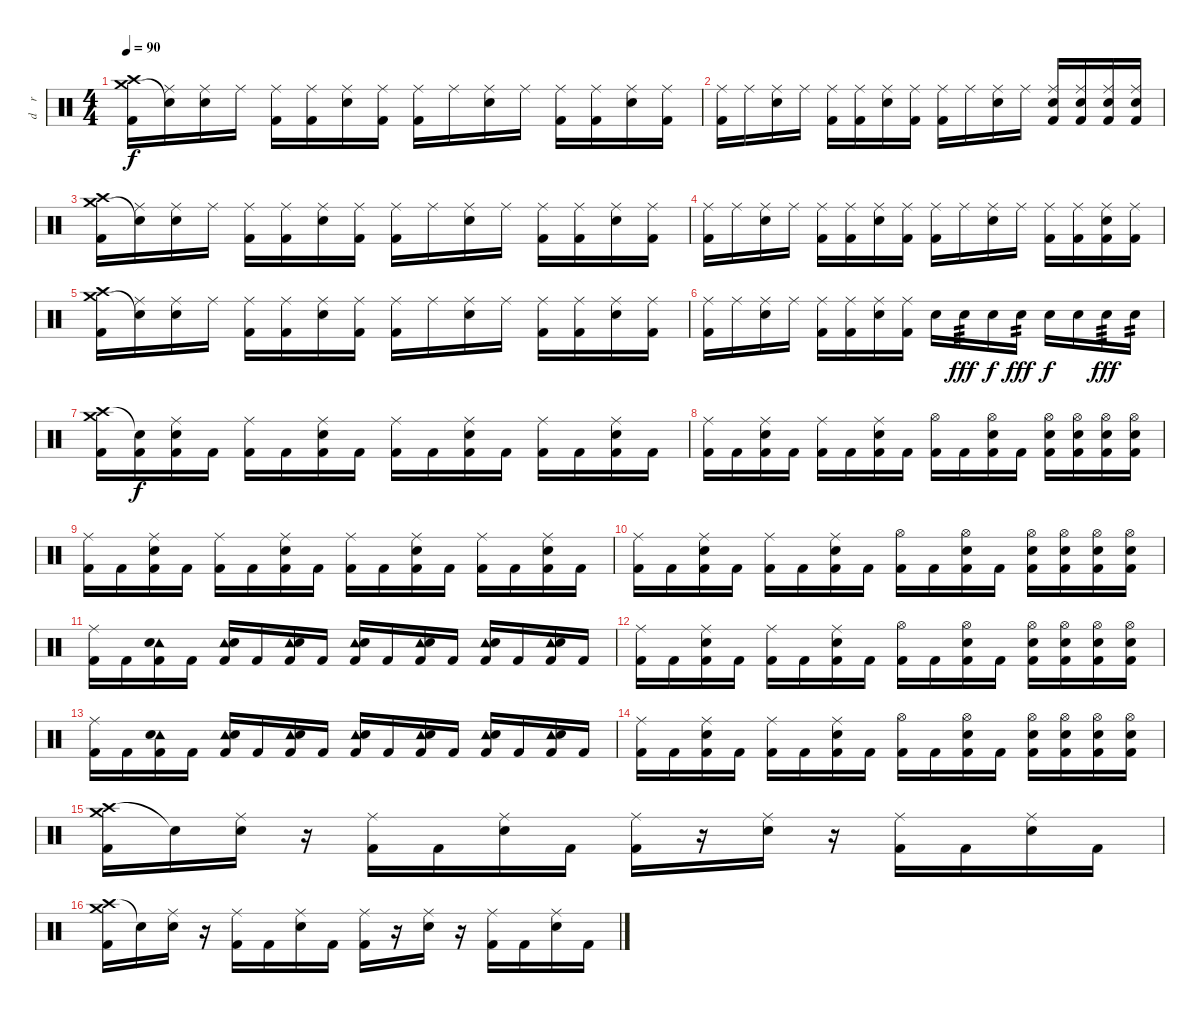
\track ("d    r     u    m    s" "d    r    ") {instrument percussion}
\staff {score}
\articulation defaults
\ts (4 4)
\tempo 90
\clef neutral
\ks c
("Crash high (hit)" "Crash medium (hit)" "Kick (hit) 2").16{dy f} ("Ride (middle)" "Snare (hit)"{t}).16 ("Ride (middle)" "Electric Snare (hit)").16 "Ride (middle)".16 ("Ride (middle)" "Kick (hit) 2").16 ("Ride (middle)" "Kick (hit) 2").16 ("Ride (middle)" "Electric Snare (hit)").16 ("Ride (middle)" "Kick (hit) 2").16 ("Ride (middle)" "Kick (hit) 2").16 "Ride (middle)".16 ("Ride (middle)" "Electric Snare (hit)").16 "Ride (middle)".16 ("Ride (middle)" "Kick (hit) 2").16 ("Ride (middle)" "Kick (hit) 2").16 ("Ride (middle)" "Electric Snare (hit)").16 ("Ride (middle)" "Kick (hit) 2").16 |
("Ride (middle)" "Kick (hit) 2").16 "Ride (middle)".16 ("Ride (middle)" "Electric Snare (hit)").16 "Ride (middle)".16 ("Ride (middle)" "Kick (hit) 2").16 ("Ride (middle)" "Kick (hit) 2").16 ("Ride (middle)" "Electric Snare (hit)").16 ("Ride (middle)" "Kick (hit) 2").16 ("Ride (middle)" "Kick (hit) 2").16 "Ride (middle)".16 ("Ride (middle)" "Electric Snare (hit)").16 "Ride (middle)".16 ("Ride (middle)" "Electric Snare (hit)" "Kick (hit) 2").16 ("Ride (middle)" "Electric Snare (hit)" "Kick (hit) 2").16 ("Ride (middle)" "Electric Snare (hit)" "Kick (hit) 2").16 ("Ride (middle)" "Electric Snare (hit)" "Kick (hit) 2").16 |
("Crash high (hit)" "Crash medium (hit)" "Kick (hit) 2").16 ("Ride (middle)" "Snare (hit)"{t}).16 ("Ride (middle)" "Electric Snare (hit)").16 "Ride (middle)".16 ("Ride (middle)" "Kick (hit) 2").16 ("Ride (middle)" "Kick (hit) 2").16 ("Ride (middle)" "Electric Snare (hit)").16 ("Ride (middle)" "Kick (hit) 2").16 ("Ride (middle)" "Kick (hit) 2").16 "Ride (middle)".16 ("Ride (middle)" "Electric Snare (hit)").16 "Ride (middle)".16 ("Ride (middle)" "Kick (hit) 2").16 ("Ride (middle)" "Kick (hit) 2").16 ("Ride (middle)" "Electric Snare (hit)").16 ("Ride (middle)" "Kick (hit) 2").16 |
("Ride (middle)" "Kick (hit) 2").16 "Ride (middle)".16 ("Ride (middle)" "Electric Snare (hit)").16 "Ride (middle)".16 ("Ride (middle)" "Kick (hit) 2").16 ("Ride (middle)" "Kick (hit) 2").16 ("Ride (middle)" "Electric Snare (hit)").16 ("Ride (middle)" "Kick (hit) 2").16 ("Ride (middle)" "Kick (hit) 2").16 "Ride (middle)".16 ("Ride (middle)" "Electric Snare (hit)").16 "Ride (middle)".16 ("Ride (middle)" "Kick (hit) 2").16 ("Ride (middle)" "Kick (hit) 2").16 ("Ride (middle)" "Electric Snare (hit)" "Kick (hit) 2").16 ("Ride (middle)" "Kick (hit) 2").16 |
("Crash high (hit)" "Crash medium (hit)" "Kick (hit) 2").16 ("Ride (middle)" "Snare (hit)"{t}).16 ("Ride (middle)" "Electric Snare (hit)").16 "Ride (middle)".16 ("Ride (middle)" "Kick (hit) 2").16 ("Ride (middle)" "Kick (hit) 2").16 ("Ride (middle)" "Electric Snare (hit)").16 ("Ride (middle)" "Kick (hit) 2").16 ("Ride (middle)" "Kick (hit) 2").16 "Ride (middle)".16 ("Ride (middle)" "Electric Snare (hit)").16 "Ride (middle)".16 ("Ride (middle)" "Kick (hit) 2").16 ("Ride (middle)" "Kick (hit) 2").16 ("Ride (middle)" "Electric Snare (hit)").16 ("Ride (middle)" "Kick (hit) 2").16 |
("Ride (middle)" "Kick (hit) 2").16 "Ride (middle)".16 ("Ride (middle)" "Electric Snare (hit)").16 "Ride (middle)".16 ("Ride (middle)" "Kick (hit) 2").16 ("Ride (middle)" "Kick (hit) 2").16 ("Ride (middle)" "Electric Snare (hit)").16 ("Ride (middle)" "Kick (hit) 2").16 "Electric Snare (hit)".16 "Electric Snare (hit)".16{tp 3 dy fff} "Electric Snare (hit)".16{dy f} "Electric Snare (hit)".16{tp 2 dy fff} "Electric Snare (hit)".16{dy f} "Electric Snare (hit)".16 "Electric Snare (hit)".16{tp 3 dy fff} "Electric Snare (hit)".16{tp 2} |
("Crash high (hit)" "Crash medium (hit)" "Kick (hit) 2").16 ("Snare (hit)"{t} "Kick (hit) 2").16{dy f} ("Ride (middle)" "Electric Snare (hit)" "Kick (hit) 2").16 "Kick (hit) 2".16 ("Ride (middle)" "Kick (hit) 2").16 "Kick (hit) 2".16 ("Ride (middle)" "Electric Snare (hit)" "Kick (hit) 2").16 "Kick (hit) 2".16 ("Ride (middle)" "Kick (hit) 2").16 "Kick (hit) 2".16 ("Ride (middle)" "Electric Snare (hit)" "Kick (hit) 2").16 "Kick (hit) 2".16 ("Ride (middle)" "Kick (hit) 2").16 "Kick (hit) 2".16 ("Ride (middle)" "Electric Snare (hit)" "Kick (hit) 2").16 "Kick (hit) 2".16 |
("Ride (middle)" "Kick (hit) 2").16 "Kick (hit) 2".16 ("Ride (middle)" "Electric Snare (hit)" "Kick (hit) 2").16 "Kick (hit) 2".16 ("Ride (middle)" "Kick (hit) 2").16 "Kick (hit) 2".16 ("Ride (middle)" "Electric Snare (hit)" "Kick (hit) 2").16 "Kick (hit) 2".16 ("Hi-Hat (open)" "Kick (hit) 2").16 "Kick (hit) 2".16 ("Hi-Hat (open)" "Electric Snare (hit)" "Kick (hit) 2").16 "Kick (hit) 2".16 ("Hi-Hat (open)" "Electric Snare (hit)" "Kick (hit) 2").16 ("Hi-Hat (open)" "Electric Snare (hit)" "Kick (hit) 2").16 ("Hi-Hat (open)" "Electric Snare (hit)" "Kick (hit) 2").16 ("Hi-Hat (open)" "Electric Snare (hit)" "Kick (hit) 2").16 |
("Ride (middle)" "Kick (hit) 2").16 "Kick (hit) 2".16 ("Ride (middle)" "Electric Snare (hit)" "Kick (hit) 2").16 "Kick (hit) 2".16 ("Ride (middle)" "Kick (hit) 2").16 "Kick (hit) 2".16 ("Ride (middle)" "Electric Snare (hit)" "Kick (hit) 2").16 "Kick (hit) 2".16 ("Ride (middle)" "Kick (hit) 2").16 "Kick (hit) 2".16 ("Ride (middle)" "Electric Snare (hit)" "Kick (hit) 2").16 "Kick (hit) 2".16 ("Ride (middle)" "Kick (hit) 2").16 "Kick (hit) 2".16 ("Ride (middle)" "Electric Snare (hit)" "Kick (hit) 2").16 "Kick (hit) 2".16 |
("Ride (middle)" "Kick (hit) 2").16 "Kick (hit) 2".16 ("Ride (middle)" "Electric Snare (hit)" "Kick (hit) 2").16 "Kick (hit) 2".16 ("Ride (middle)" "Kick (hit) 2").16 "Kick (hit) 2".16 ("Ride (middle)" "Electric Snare (hit)" "Kick (hit) 2").16 "Kick (hit) 2".16 ("Hi-Hat (open)" "Kick (hit) 2").16 "Kick (hit) 2".16 ("Hi-Hat (open)" "Electric Snare (hit)" "Kick (hit) 2").16 "Kick (hit) 2".16 ("Hi-Hat (open)" "Electric Snare (hit)" "Kick (hit) 2").16 ("Hi-Hat (open)" "Electric Snare (hit)" "Kick (hit) 2").16 ("Hi-Hat (open)" "Electric Snare (hit)" "Kick (hit) 2").16 ("Hi-Hat (open)" "Electric Snare (hit)" "Kick (hit) 2").16 |
("Ride (middle)" "Kick (hit) 2").16 "Kick (hit) 2".16 ("Tambourine (hit)" "Electric Snare (hit)" "Kick (hit) 2").16 "Kick (hit) 2".16 ("Tambourine (hit)" "Electric Snare (hit)" "Kick (hit) 2").16 "Kick (hit) 2".16 ("Tambourine (hit)" "Electric Snare (hit)" "Kick (hit) 2").16 "Kick (hit) 2".16 ("Tambourine (hit)" "Electric Snare (hit)" "Kick (hit) 2").16 "Kick (hit) 2".16 ("Tambourine (hit)" "Electric Snare (hit)" "Kick (hit) 2").16 "Kick (hit) 2".16 ("Tambourine (hit)" "Electric Snare (hit)" "Kick (hit) 2").16 "Kick (hit) 2".16 ("Tambourine (hit)" "Electric Snare (hit)" "Kick (hit) 2").16 "Kick (hit) 2".16 |
("Ride (middle)" "Kick (hit) 2").16 "Kick (hit) 2".16 ("Ride (middle)" "Electric Snare (hit)" "Kick (hit) 2").16 "Kick (hit) 2".16 ("Ride (middle)" "Kick (hit) 2").16 "Kick (hit) 2".16 ("Ride (middle)" "Electric Snare (hit)" "Kick (hit) 2").16 "Kick (hit) 2".16 ("Hi-Hat (open)" "Kick (hit) 2").16 "Kick (hit) 2".16 ("Hi-Hat (open)" "Electric Snare (hit)" "Kick (hit) 2").16 "Kick (hit) 2".16 ("Hi-Hat (open)" "Electric Snare (hit)" "Kick (hit) 2").16 ("Hi-Hat (open)" "Electric Snare (hit)" "Kick (hit) 2").16 ("Hi-Hat (open)" "Electric Snare (hit)" "Kick (hit) 2").16 ("Hi-Hat (open)" "Electric Snare (hit)" "Kick (hit) 2").16 |
("Ride (middle)" "Kick (hit) 2").16 "Kick (hit) 2".16 ("Tambourine (hit)" "Electric Snare (hit)" "Kick (hit) 2").16 "Kick (hit) 2".16 ("Tambourine (hit)" "Electric Snare (hit)" "Kick (hit) 2").16 "Kick (hit) 2".16 ("Tambourine (hit)" "Electric Snare (hit)" "Kick (hit) 2").16 "Kick (hit) 2".16 ("Tambourine (hit)" "Electric Snare (hit)" "Kick (hit) 2").16 "Kick (hit) 2".16 ("Tambourine (hit)" "Electric Snare (hit)" "Kick (hit) 2").16 "Kick (hit) 2".16 ("Tambourine (hit)" "Electric Snare (hit)" "Kick (hit) 2").16 "Kick (hit) 2".16 ("Tambourine (hit)" "Electric Snare (hit)" "Kick (hit) 2").16 "Kick (hit) 2".16 |
("Ride (middle)" "Kick (hit) 2").16 "Kick (hit) 2".16 ("Ride (middle)" "Electric Snare (hit)" "Kick (hit) 2").16 "Kick (hit) 2".16 ("Ride (middle)" "Kick (hit) 2").16 "Kick (hit) 2".16 ("Ride (middle)" "Electric Snare (hit)" "Kick (hit) 2").16 "Kick (hit) 2".16 ("Hi-Hat (open)" "Kick (hit) 2").16 "Kick (hit) 2".16 ("Hi-Hat (open)" "Electric Snare (hit)" "Kick (hit) 2").16 "Kick (hit) 2".16 ("Hi-Hat (open)" "Electric Snare (hit)" "Kick (hit) 2").16 ("Hi-Hat (open)" "Electric Snare (hit)" "Kick (hit) 2").16 ("Hi-Hat (open)" "Electric Snare (hit)" "Kick (hit) 2").16 ("Hi-Hat (open)" "Electric Snare (hit)" "Kick (hit) 2").16 |
("Crash high (hit)" "Crash medium (hit)" "Kick (hit) 2").16 "Snare (hit)"{t}.16 ("Ride (middle)" "Electric Snare (hit)").16 r.16 ("Ride (middle)" "Kick (hit) 2").16 "Kick (hit) 2".16 ("Ride (middle)" "Electric Snare (hit)").16 "Kick (hit) 2".16 ("Ride (middle)" "Kick (hit) 2").16 r.16 ("Ride (middle)" "Electric Snare (hit)").16 r.16 ("Ride (middle)" "Kick (hit) 2").16 "Kick (hit) 2".16 ("Ride (middle)" "Electric Snare (hit)").16 "Kick (hit) 2".16 |
("Crash high (hit)" "Crash medium (hit)" "Kick (hit) 2").16 "Snare (hit)"{t}.16 ("Ride (middle)" "Electric Snare (hit)").16 r.16 ("Ride (middle)" "Kick (hit) 2").16 "Kick (hit) 2".16 ("Ride (middle)" "Electric Snare (hit)").16 "Kick (hit) 2".16 ("Ride (middle)" "Kick (hit) 2").16 r.16 ("Ride (middle)" "Electric Snare (hit)").16 r.16 ("Ride (middle)" "Kick (hit) 2").16 "Kick (hit) 2".16 ("Ride (middle)" "Electric Snare (hit)").16 "Kick (hit) 2".16
